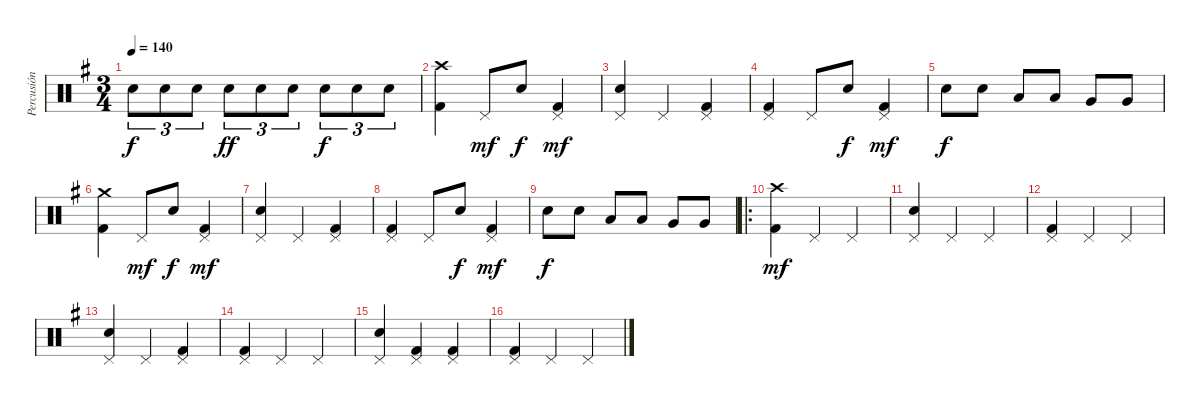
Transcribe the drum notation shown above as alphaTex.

\track ("Percusión" "Percusión") {instrument percussion}
\staff {score}
\articulation defaults
\ts (3 4)
\tempo 140
\clef neutral
\ks g "Snare (hit) 2".8{tu (3 2) dy f} "Snare (hit) 2".8{tu (3 2)} "Snare (hit) 2".8{tu (3 2)} "Snare (hit) 2".8{tu (3 2) dy ff} "Snare (hit) 2".8{tu (3 2)} "Snare (hit) 2".8{tu (3 2)} "Snare (hit) 2".8{tu (3 2) dy f} "Snare (hit) 2".8{tu (3 2)} "Snare (hit) 2".8{tu (3 2)}
|
("Crash high (hit)" "Kick (hit) 2").4 "Pedal Hi-Hat (hit)".8{dy mf} "Snare (hit) 2".8{dy f} ("Pedal Hi-Hat (hit)" "Kick (hit) 2").4{dy mf} |
("Pedal Hi-Hat (hit)" "Snare (hit) 2").4 "Pedal Hi-Hat (hit)".4 ("Pedal Hi-Hat (hit)" "Kick (hit) 2").4 |
("Pedal Hi-Hat (hit)" "Kick (hit) 2").4 "Pedal Hi-Hat (hit)".8 "Snare (hit) 2".8{dy f} ("Pedal Hi-Hat (hit)" "Kick (hit) 2").4{dy mf} |
"Snare (hit) 2".8{dy f} "Snare (hit) 2".8 "Low Tom (hit)".8 "Low Tom (hit)".8 "Very Low Tom (hit)".8 "Very Low Tom (hit)".8 |
("Crash medium (hit)" "Kick (hit) 2").4 "Pedal Hi-Hat (hit)".8{dy mf} "Snare (hit) 2".8{dy f} ("Pedal Hi-Hat (hit)" "Kick (hit) 2").4{dy mf} |
("Pedal Hi-Hat (hit)" "Snare (hit) 2").4 "Pedal Hi-Hat (hit)".4 ("Pedal Hi-Hat (hit)" "Kick (hit) 2").4 |
("Pedal Hi-Hat (hit)" "Kick (hit) 2").4 "Pedal Hi-Hat (hit)".8 "Snare (hit) 2".8{dy f} ("Pedal Hi-Hat (hit)" "Kick (hit) 2").4{dy mf} |
"Snare (hit) 2".8{dy f} "Snare (hit) 2".8 "Low Tom (hit)".8 "Low Tom (hit)".8 "Very Low Tom (hit)".8 "Very Low Tom (hit)".8 |
\ro
("Crash high (hit)" "Kick (hit) 2").4{dy mf} "Pedal Hi-Hat (hit)".4 "Pedal Hi-Hat (hit)".4 |
("Pedal Hi-Hat (hit)" "Snare (hit) 2").4 "Pedal Hi-Hat (hit)".4 "Pedal Hi-Hat (hit)".4 |
("Pedal Hi-Hat (hit)" "Kick (hit) 2").4 "Pedal Hi-Hat (hit)".4 "Pedal Hi-Hat (hit)".4 |
("Pedal Hi-Hat (hit)" "Snare (hit) 2").4 "Pedal Hi-Hat (hit)".4 ("Pedal Hi-Hat (hit)" "Kick (hit) 2").4 |
("Pedal Hi-Hat (hit)" "Kick (hit) 2").4 "Pedal Hi-Hat (hit)".4 "Pedal Hi-Hat (hit)".4 |
("Pedal Hi-Hat (hit)" "Snare (hit) 2").4 ("Pedal Hi-Hat (hit)" "Kick (hit) 2").4 ("Pedal Hi-Hat (hit)" "Kick (hit) 2").4 |
("Pedal Hi-Hat (hit)" "Kick (hit) 2").4 "Pedal Hi-Hat (hit)".4 "Pedal Hi-Hat (hit)".4
